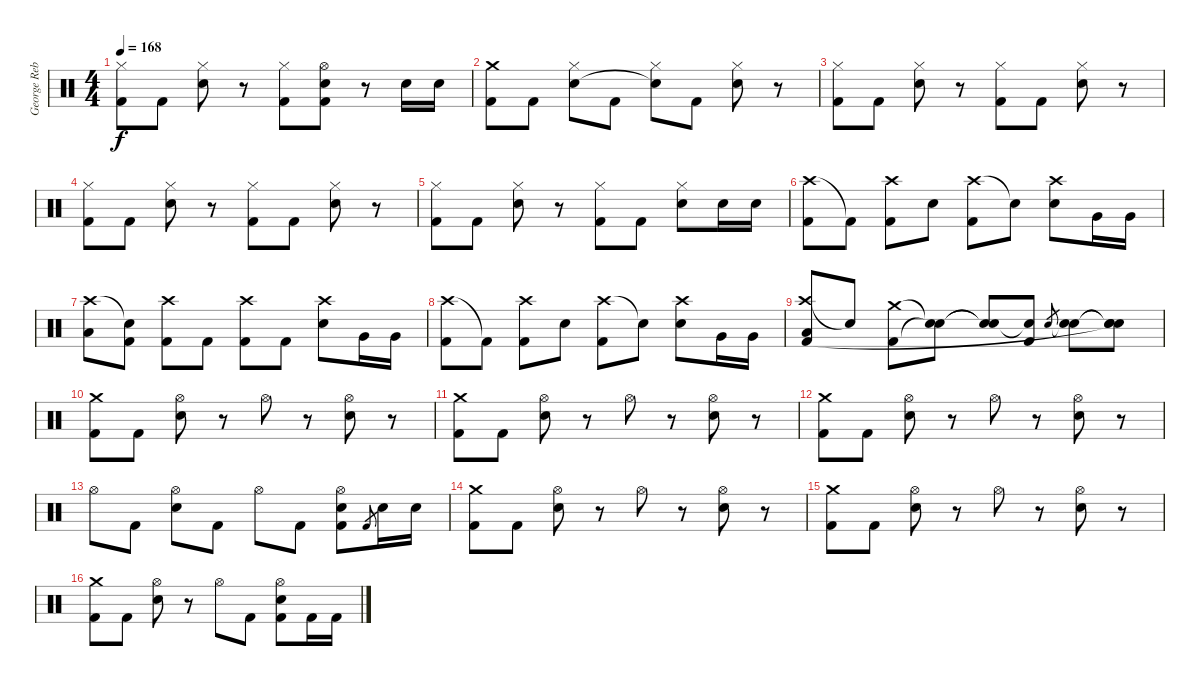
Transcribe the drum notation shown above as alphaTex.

\track ("George Rebelo" "George Reb") {instrument percussion}
\staff {score}
\articulation defaults
\ts (4 4)
\tempo 168
\clef neutral
\ks c
("Hi-Hat (closed)" "Kick (hit) 2").8{dy f} "Kick (hit) 2".8 ("Hi-Hat (closed)" "Electric Snare (hit)").8 r.8 ("Hi-Hat (closed)" "Kick (hit) 2").8 ("Hi-Hat (open)" "Electric Snare (hit)" "Kick (hit) 2").8 r.8 "Electric Snare (hit)".16 "Electric Snare (hit)".16 |
("Crash medium (hit)" "Kick (hit) 2").8 "Kick (hit) 2".8 ("Hi-Hat (closed)" "Electric Snare (hit)").8 "Kick (hit) 2".8 ("Hi-Hat (closed)" "Snare (hit)"{t}).8 "Kick (hit) 2".8 ("Hi-Hat (closed)" "Electric Snare (hit)").8 r.8 |
("Hi-Hat (closed)" "Kick (hit) 2").8 "Kick (hit) 2".8 ("Hi-Hat (closed)" "Electric Snare (hit)").8 r.8 ("Hi-Hat (closed)" "Kick (hit) 2").8 "Kick (hit) 2".8 ("Hi-Hat (closed)" "Electric Snare (hit)").8 r.8 |
("Hi-Hat (closed)" "Kick (hit) 2").8 "Kick (hit) 2".8 ("Hi-Hat (closed)" "Electric Snare (hit)").8 r.8 ("Hi-Hat (closed)" "Kick (hit) 2").8 "Kick (hit) 2".8 ("Hi-Hat (closed)" "Electric Snare (hit)").8 r.8 |
("Hi-Hat (closed)" "Kick (hit) 2").8 "Kick (hit) 2".8 ("Hi-Hat (closed)" "Electric Snare (hit)").8 r.8 ("Hi-Hat (closed)" "Kick (hit) 2").8 "Kick (hit) 2".8 ("Hi-Hat (closed)" "Electric Snare (hit)").8 "Electric Snare (hit)".16 "Electric Snare (hit)".16 |
("Crash high (hit)" "Kick (hit) 2").8 "Kick (hit) 2"{t}.8 ("Crash high (hit)" "Kick (hit) 2").8 "Electric Snare (hit)".8 ("Crash high (hit)" "Kick (hit) 2").8 "Snare (hit)"{t}.8 ("Crash high (hit)" "Electric Snare (hit)").8 "Very Low Tom (hit)".16 "Very Low Tom (hit)".16 |
("Crash high (hit)" "Low Floor Tom (hit)").8 ("Snare (hit)"{t} "Kick (hit) 2").8 ("Crash high (hit)" "Kick (hit) 2").8 "Kick (hit) 2".8 ("Crash high (hit)" "Kick (hit) 2").8 "Kick (hit) 2".8 ("Crash high (hit)" "Electric Snare (hit)").8 "Very Low Tom (hit)".16 "Very Low Tom (hit)".16 |
("Crash high (hit)" "Kick (hit) 2").8 "Kick (hit) 2"{t}.8 ("Crash high (hit)" "Kick (hit) 2").8 "Electric Snare (hit)".8 ("Crash high (hit)" "Kick (hit) 2").8 "Snare (hit)"{t}.8 ("Crash high (hit)" "Electric Snare (hit)").8 "Very Low Tom (hit)".16 "Very Low Tom (hit)".16 |
("Crash high (hit)" "Low Floor Tom (hit)" "Kick (hit) 2").8 "Snare (hit)"{t}.8 ("Crash medium (hit)" "Kick (hit) 2").8 ("Snare (hit)"{t} "Snare (hit)"{t}).8 ("Snare (hit)"{t} "Snare (hit)"{t}).8 ("Snare (hit)"{t} "Kick (hit) 2").8 "Electric Snare (hit)".8{gr} ("Snare (hit)"{t} "Electric Snare (hit)").8 ("Snare (hit)"{t} "Electric Snare (hit)"{t} "Snare (hit)"{t}).8 |
("Crash medium (hit)" "Kick (hit) 2").8 "Kick (hit) 2".8 ("Hi-Hat (open)" "Electric Snare (hit)").8 r.8 "Hi-Hat (open)".8 r.8 ("Hi-Hat (open)" "Electric Snare (hit)").8 r.8 |
("Crash medium (hit)" "Kick (hit) 2").8 "Kick (hit) 2".8 ("Hi-Hat (open)" "Electric Snare (hit)").8 r.8 "Hi-Hat (open)".8 r.8 ("Hi-Hat (open)" "Electric Snare (hit)").8 r.8 |
("Crash medium (hit)" "Kick (hit) 2").8 "Kick (hit) 2".8 ("Hi-Hat (open)" "Electric Snare (hit)").8 r.8 "Hi-Hat (open)".8 r.8 ("Hi-Hat (open)" "Electric Snare (hit)").8 r.8 |
"Hi-Hat (open)".8 "Kick (hit) 2".8 ("Hi-Hat (open)" "Electric Snare (hit)").8 "Kick (hit) 2".8 "Hi-Hat (open)".8 "Kick (hit) 2".8 ("Hi-Hat (open)" "Electric Snare (hit)" "Kick (hit) 2").8 "Kick (hit) 2".8{gr} "Electric Snare (hit)".16 "Electric Snare (hit)".16 |
("Crash medium (hit)" "Kick (hit) 2").8 "Kick (hit) 2".8 ("Hi-Hat (open)" "Electric Snare (hit)").8 r.8 "Hi-Hat (open)".8 r.8 ("Hi-Hat (open)" "Electric Snare (hit)").8 r.8 |
("Crash medium (hit)" "Kick (hit) 2").8 "Kick (hit) 2".8 ("Hi-Hat (open)" "Electric Snare (hit)").8 r.8 "Hi-Hat (open)".8 r.8 ("Hi-Hat (open)" "Electric Snare (hit)").8 r.8 |
("Crash medium (hit)" "Kick (hit) 2").8 "Kick (hit) 2".8 ("Hi-Hat (open)" "Electric Snare (hit)").8 r.8 "Hi-Hat (open)".8 "Kick (hit) 2".8 ("Hi-Hat (open)" "Electric Snare (hit)" "Kick (hit) 2").8 "Kick (hit) 2".16 "Kick (hit) 2".16
